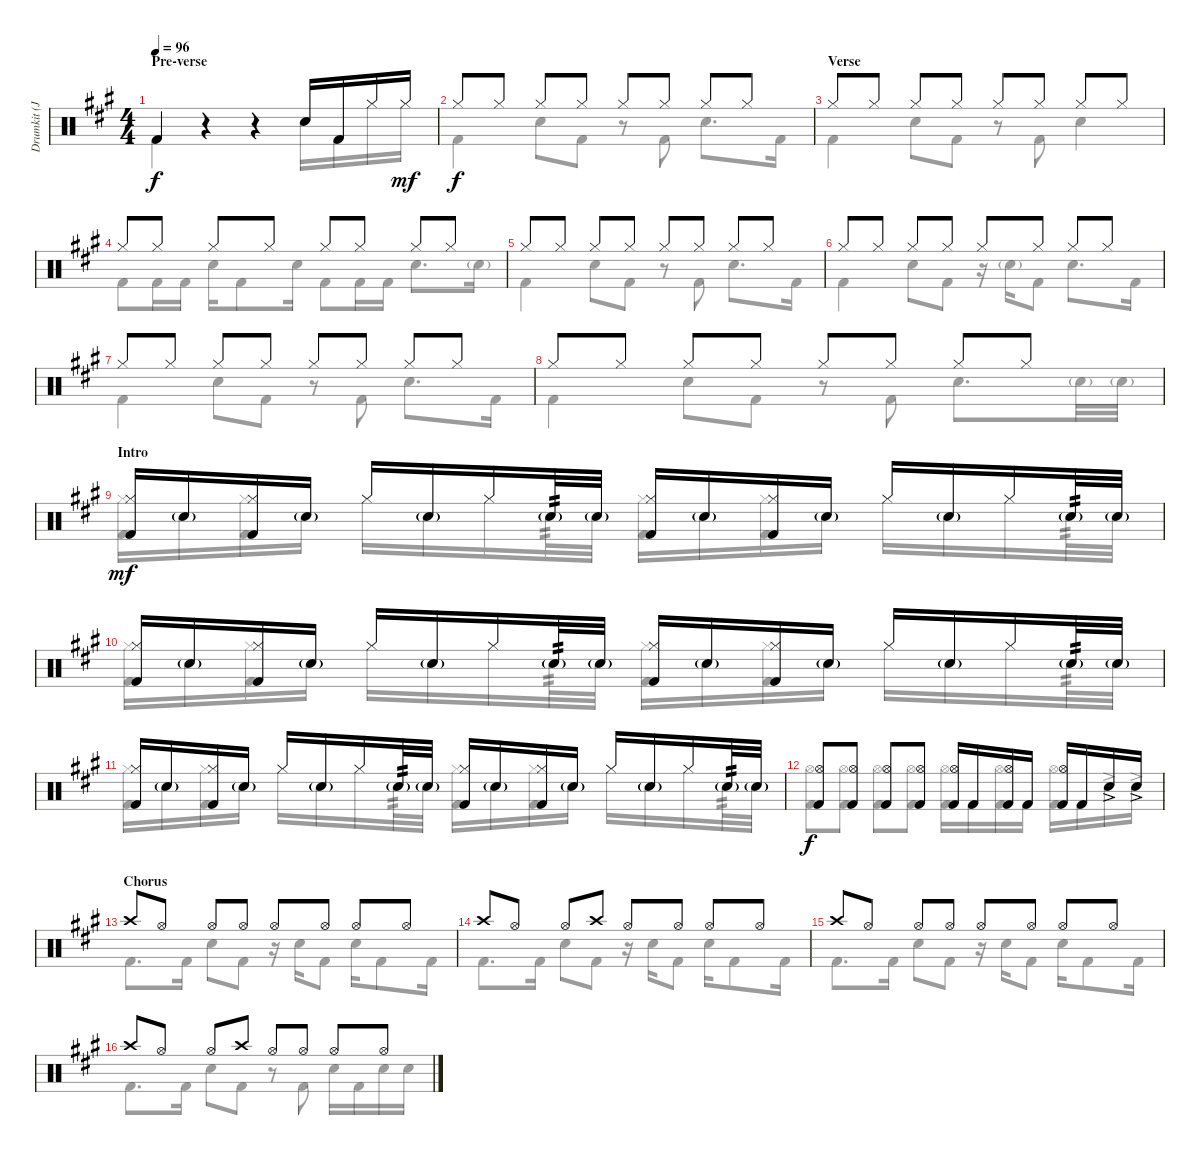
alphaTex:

\track ("Drumkit (John Otto)" "Drumkit (J") {instrument percussion}
\staff {score}
\articulation defaults
\voice
\ts (4 4)
\section ("" "Pre-verse")
\tempo 96
\clef neutral
\ks a "Kick (hit) 2".4{dy f}
r.4 r.4 "Snare (hit) 2".16 "Kick (hit) 2".16 "Hi-Hat (closed)".16 "Hi-Hat (closed)".16{dy mf} |
"Hi-Hat (closed)".8{dy f} "Hi-Hat (closed)".8 "Hi-Hat (closed)".8 "Hi-Hat (closed)".8 "Hi-Hat (closed)".8 "Hi-Hat (closed)".8 "Hi-Hat (closed)".8 "Hi-Hat (closed)".8 |
\section ("" "Verse")
"Hi-Hat (closed)".8 "Hi-Hat (closed)".8 "Hi-Hat (closed)".8 "Hi-Hat (closed)".8 "Hi-Hat (closed)".8 "Hi-Hat (closed)".8 "Hi-Hat (closed)".8 "Hi-Hat (closed)".8 |
"Hi-Hat (closed)".8 "Hi-Hat (closed)".8 "Hi-Hat (closed)".8 "Hi-Hat (closed)".8 "Hi-Hat (closed)".8 "Hi-Hat (closed)".8 "Hi-Hat (closed)".8 "Hi-Hat (closed)".8 |
"Hi-Hat (closed)".8 "Hi-Hat (closed)".8 "Hi-Hat (closed)".8 "Hi-Hat (closed)".8 "Hi-Hat (closed)".8 "Hi-Hat (closed)".8 "Hi-Hat (closed)".8 "Hi-Hat (closed)".8 |
"Hi-Hat (closed)".8 "Hi-Hat (closed)".8 "Hi-Hat (closed)".8 "Hi-Hat (closed)".8 "Hi-Hat (closed)".8 "Hi-Hat (closed)".8 "Hi-Hat (closed)".8 "Hi-Hat (closed)".8 |
"Hi-Hat (closed)".8 "Hi-Hat (closed)".8 "Hi-Hat (closed)".8 "Hi-Hat (closed)".8 "Hi-Hat (closed)".8 "Hi-Hat (closed)".8 "Hi-Hat (closed)".8 "Hi-Hat (closed)".8 |
"Hi-Hat (closed)".8 "Hi-Hat (closed)".8 "Hi-Hat (closed)".8 "Hi-Hat (closed)".8 "Hi-Hat (closed)".8 "Hi-Hat (closed)".8 "Hi-Hat (closed)".8 "Hi-Hat (closed)".8 |
\section ("" "Intro")
("Kick (hit) 2" "Hi-Hat (closed)").16{dy mf} "Snare (hit) 2"{g}.16 ("Kick (hit) 2" "Hi-Hat (closed)").16 "Snare (hit) 2"{g}.16 "Hi-Hat (closed)".16 "Snare (hit) 2"{g}.16 "Hi-Hat (closed)".16 "Snare (hit) 2"{g}.32{tp 2} "Snare (hit) 2"{g}.32 ("Kick (hit) 2" "Hi-Hat (closed)").16 "Snare (hit) 2"{g}.16 ("Kick (hit) 2" "Hi-Hat (closed)").16 "Snare (hit) 2"{g}.16 "Hi-Hat (closed)".16 "Snare (hit) 2"{g}.16 "Hi-Hat (closed)".16 "Snare (hit) 2"{g}.32{tp 2} "Snare (hit) 2"{g}.32 |
("Kick (hit) 2" "Hi-Hat (closed)").16 "Snare (hit) 2"{g}.16 ("Kick (hit) 2" "Hi-Hat (closed)").16 "Snare (hit) 2"{g}.16 "Hi-Hat (closed)".16 "Snare (hit) 2"{g}.16 "Hi-Hat (closed)".16 "Snare (hit) 2"{g}.32{tp 2} "Snare (hit) 2"{g}.32 ("Kick (hit) 2" "Hi-Hat (closed)").16 "Snare (hit) 2"{g}.16 ("Kick (hit) 2" "Hi-Hat (closed)").16 "Snare (hit) 2"{g}.16 "Hi-Hat (closed)".16 "Snare (hit) 2"{g}.16 "Hi-Hat (closed)".16 "Snare (hit) 2"{g}.32{tp 2} "Snare (hit) 2"{g}.32 |
("Kick (hit) 2" "Hi-Hat (closed)").16 "Snare (hit) 2"{g}.16 ("Kick (hit) 2" "Hi-Hat (closed)").16 "Snare (hit) 2"{g}.16 "Hi-Hat (closed)".16 "Snare (hit) 2"{g}.16 "Hi-Hat (closed)".16 "Snare (hit) 2"{g}.32{tp 2} "Snare (hit) 2"{g}.32 ("Kick (hit) 2" "Hi-Hat (closed)").16 "Snare (hit) 2"{g}.16 ("Kick (hit) 2" "Hi-Hat (closed)").16 "Snare (hit) 2"{g}.16 "Hi-Hat (closed)".16 "Snare (hit) 2"{g}.16 "Hi-Hat (closed)".16 "Snare (hit) 2"{g}.32{tp 2} "Snare (hit) 2"{g}.32 |
("Hi-Hat (open)" "Kick (hit) 2").8{dy f} ("Hi-Hat (open)" "Kick (hit) 2").8 ("Hi-Hat (open)" "Kick (hit) 2").8 ("Hi-Hat (open)" "Kick (hit) 2").8 ("Hi-Hat (open)" "Kick (hit) 2").16 "Kick (hit) 2".16 ("Hi-Hat (open)" "Kick (hit) 2").16 "Kick (hit) 2".16 ("Hi-Hat (open)" "Kick (hit) 2").16 "Kick (hit) 2".16 "Snare (hit) 2"{ac}.16 "Snare (hit) 2"{ac}.16 |
\section ("" "Chorus")
"Crash high (hit)".8 "Hi-Hat (open)".8 "Hi-Hat (open)".8 "Hi-Hat (open)".8 "Hi-Hat (open)".8 "Hi-Hat (open)".8 "Hi-Hat (open)".8 "Hi-Hat (open)".8 |
"Crash high (hit)".8 "Hi-Hat (open)".8 "Hi-Hat (open)".8 "Crash high (hit)".8 "Hi-Hat (open)".8 "Hi-Hat (open)".8 "Hi-Hat (open)".8 "Hi-Hat (open)".8 |
"Crash high (hit)".8 "Hi-Hat (open)".8 "Hi-Hat (open)".8 "Hi-Hat (open)".8 "Hi-Hat (open)".8 "Hi-Hat (open)".8 "Hi-Hat (open)".8 "Hi-Hat (open)".8 |
"Crash high (hit)".8 "Hi-Hat (open)".8 "Hi-Hat (open)".8 "Crash high (hit)".8 "Hi-Hat (open)".8 "Hi-Hat (open)".8 "Hi-Hat (open)".8 "Hi-Hat (open)".8
\voice
\clef neutral
\ottava regular
\simile none
\ks a "Kick (hit) 2".4{dy f}
r.4 r.4 "Snare (hit) 2".16 "Kick (hit) 2".16 "Hi-Hat (closed)".16 "Hi-Hat (closed)".16 |
"Kick (hit) 2".4 "Snare (hit) 2".8 "Kick (hit) 2".8 r.8 "Kick (hit) 2".8 "Snare (hit) 2".8{d} "Kick (hit) 2".16 |
"Kick (hit) 2".4 "Snare (hit) 2".8 "Kick (hit) 2".8 r.8 "Kick (hit) 2".8 "Snare (hit) 2".4 |
"Kick (hit) 2".8 "Kick (hit) 2".16 "Kick (hit) 2".16 "Snare (hit) 2".16 "Kick (hit) 2".8 "Snare (hit) 2".16 "Kick (hit) 2".8 "Kick (hit) 2".16 "Kick (hit) 2".16 "Snare (hit) 2".8{d} "Snare (hit) 2"{g}.16 |
"Kick (hit) 2".4 "Snare (hit) 2".8 "Kick (hit) 2".8 r.8 "Kick (hit) 2".8 "Snare (hit) 2".8{d} "Kick (hit) 2".16 |
"Kick (hit) 2".4 "Snare (hit) 2".8 "Kick (hit) 2".8 r.16 "Snare (hit) 2"{g}.16 "Kick (hit) 2".8 "Snare (hit) 2".8{d} "Kick (hit) 2".16 |
"Kick (hit) 2".4 "Snare (hit) 2".8 "Kick (hit) 2".8 r.8 "Kick (hit) 2".8 "Snare (hit) 2".8{d} "Kick (hit) 2".16 |
"Kick (hit) 2".4 "Snare (hit) 2".8 "Kick (hit) 2".8 r.8 "Kick (hit) 2".8 "Snare (hit) 2".8{d} "Snare (hit) 2"{g}.32 "Snare (hit) 2"{g}.32 |
("Kick (hit) 2" "Hi-Hat (closed)").16{dy mf} "Snare (hit) 2"{g}.16 ("Kick (hit) 2" "Hi-Hat (closed)").16 "Snare (hit) 2"{g}.16 "Hi-Hat (closed)".16 "Snare (hit) 2"{g}.16 "Hi-Hat (closed)".16 "Snare (hit) 2"{g}.32{tp 2} "Snare (hit) 2"{g}.32 ("Kick (hit) 2" "Hi-Hat (closed)").16 "Snare (hit) 2"{g}.16 ("Kick (hit) 2" "Hi-Hat (closed)").16 "Snare (hit) 2"{g}.16 "Hi-Hat (closed)".16 "Snare (hit) 2"{g}.16 "Hi-Hat (closed)".16 "Snare (hit) 2"{g}.32{tp 2} "Snare (hit) 2"{g}.32 |
("Kick (hit) 2" "Hi-Hat (closed)").16 "Snare (hit) 2"{g}.16 ("Kick (hit) 2" "Hi-Hat (closed)").16 "Snare (hit) 2"{g}.16 "Hi-Hat (closed)".16 "Snare (hit) 2"{g}.16 "Hi-Hat (closed)".16 "Snare (hit) 2"{g}.32{tp 2} "Snare (hit) 2"{g}.32 ("Kick (hit) 2" "Hi-Hat (closed)").16 "Snare (hit) 2"{g}.16 ("Kick (hit) 2" "Hi-Hat (closed)").16 "Snare (hit) 2"{g}.16 "Hi-Hat (closed)".16 "Snare (hit) 2"{g}.16 "Hi-Hat (closed)".16 "Snare (hit) 2"{g}.32{tp 2} "Snare (hit) 2"{g}.32 |
("Kick (hit) 2" "Hi-Hat (closed)").16 "Snare (hit) 2"{g}.16 ("Kick (hit) 2" "Hi-Hat (closed)").16 "Snare (hit) 2"{g}.16 "Hi-Hat (closed)".16 "Snare (hit) 2"{g}.16 "Hi-Hat (closed)".16 "Snare (hit) 2"{g}.32{tp 2} "Snare (hit) 2"{g}.32 ("Kick (hit) 2" "Hi-Hat (closed)").16 "Snare (hit) 2"{g}.16 ("Kick (hit) 2" "Hi-Hat (closed)").16 "Snare (hit) 2"{g}.16 "Hi-Hat (closed)".16 "Snare (hit) 2"{g}.16 "Hi-Hat (closed)".16 "Snare (hit) 2"{g}.32{tp 2} "Snare (hit) 2"{g}.32 |
("Hi-Hat (open)" "Kick (hit) 2").8{dy f} ("Hi-Hat (open)" "Kick (hit) 2").8 ("Hi-Hat (open)" "Kick (hit) 2").8 ("Hi-Hat (open)" "Kick (hit) 2").8 ("Hi-Hat (open)" "Kick (hit) 2").16 "Kick (hit) 2".16 ("Hi-Hat (open)" "Kick (hit) 2").16 "Kick (hit) 2".16 ("Hi-Hat (open)" "Kick (hit) 2").16 "Kick (hit) 2".16 "Snare (hit) 2"{ac}.16 "Snare (hit) 2"{ac}.16 |
"Kick (hit) 2".8{d} "Kick (hit) 2".16 "Snare (hit) 2".8 "Kick (hit) 2".8 r.16 "Snare (hit) 2".16 "Kick (hit) 2".8 "Snare (hit) 2".16 "Kick (hit) 2".8 "Kick (hit) 2".16 |
"Kick (hit) 2".8{d} "Kick (hit) 2".16 "Snare (hit) 2".8 "Kick (hit) 2".8 r.16 "Snare (hit) 2".16 "Kick (hit) 2".8 "Snare (hit) 2".16 "Kick (hit) 2".8 "Kick (hit) 2".16 |
"Kick (hit) 2".8{d} "Kick (hit) 2".16 "Snare (hit) 2".8 "Kick (hit) 2".8 r.16 "Snare (hit) 2".16 "Kick (hit) 2".8 "Snare (hit) 2".16 "Kick (hit) 2".8 "Kick (hit) 2".16 |
"Kick (hit) 2".8{d} "Kick (hit) 2".16 "Snare (hit) 2".8 "Kick (hit) 2".8 r.8 "Kick (hit) 2".8 "Snare (hit) 2".16 "Kick (hit) 2".16 "Snare (hit) 2".16 "Snare (hit) 2".16
